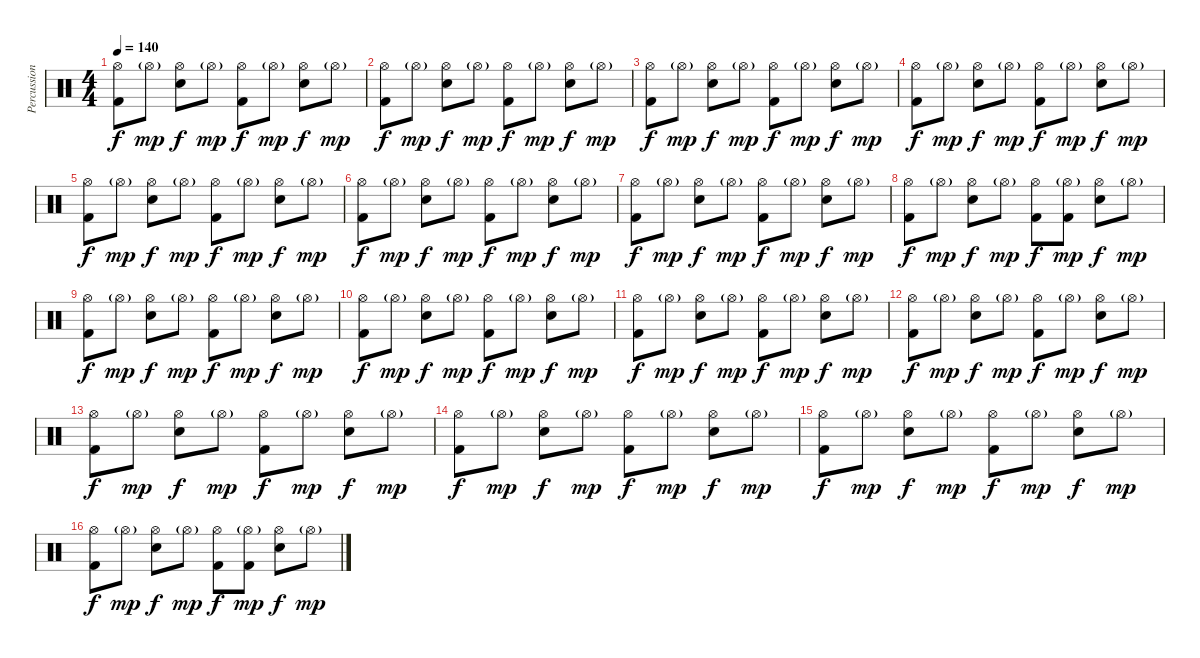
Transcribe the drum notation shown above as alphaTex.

\track ("Percussion" "Percussion") {instrument percussion}
\staff {score}
\articulation defaults
\ts (4 4)
\tempo 140
\clef neutral
\ks c
("Hi-Hat (open)" "Kick (hit) 2").8{dy f} "Hi-Hat (open)"{g}.8{dy mp} ("Hi-Hat (open)" "Snare (hit) 2").8{dy f} "Hi-Hat (open)"{g}.8{dy mp} ("Hi-Hat (open)" "Kick (hit) 2").8{dy f} "Hi-Hat (open)"{g}.8{dy mp} ("Hi-Hat (open)" "Snare (hit) 2").8{dy f} "Hi-Hat (open)"{g}.8{dy mp} |
("Hi-Hat (open)" "Kick (hit) 2").8{dy f} "Hi-Hat (open)"{g}.8{dy mp} ("Hi-Hat (open)" "Snare (hit) 2").8{dy f} "Hi-Hat (open)"{g}.8{dy mp} ("Hi-Hat (open)" "Kick (hit) 2").8{dy f} "Hi-Hat (open)"{g}.8{dy mp} ("Hi-Hat (open)" "Snare (hit) 2").8{dy f} "Hi-Hat (open)"{g}.8{dy mp} |
("Hi-Hat (open)" "Kick (hit) 2").8{dy f} "Hi-Hat (open)"{g}.8{dy mp} ("Hi-Hat (open)" "Snare (hit) 2").8{dy f} "Hi-Hat (open)"{g}.8{dy mp} ("Hi-Hat (open)" "Kick (hit) 2").8{dy f} "Hi-Hat (open)"{g}.8{dy mp} ("Hi-Hat (open)" "Snare (hit) 2").8{dy f} "Hi-Hat (open)"{g}.8{dy mp} |
("Hi-Hat (open)" "Kick (hit) 2").8{dy f} "Hi-Hat (open)"{g}.8{dy mp} ("Hi-Hat (open)" "Snare (hit) 2").8{dy f} "Hi-Hat (open)"{g}.8{dy mp} ("Hi-Hat (open)" "Kick (hit) 2").8{dy f} "Hi-Hat (open)"{g}.8{dy mp} ("Hi-Hat (open)" "Snare (hit) 2").8{dy f} "Hi-Hat (open)"{g}.8{dy mp} |
("Hi-Hat (open)" "Kick (hit) 2").8{dy f} "Hi-Hat (open)"{g}.8{dy mp} ("Hi-Hat (open)" "Snare (hit) 2").8{dy f} "Hi-Hat (open)"{g}.8{dy mp} ("Hi-Hat (open)" "Kick (hit) 2").8{dy f} "Hi-Hat (open)"{g}.8{dy mp} ("Hi-Hat (open)" "Snare (hit) 2").8{dy f} "Hi-Hat (open)"{g}.8{dy mp} |
("Hi-Hat (open)" "Kick (hit) 2").8{dy f} "Hi-Hat (open)"{g}.8{dy mp} ("Hi-Hat (open)" "Snare (hit) 2").8{dy f} "Hi-Hat (open)"{g}.8{dy mp} ("Hi-Hat (open)" "Kick (hit) 2").8{dy f} "Hi-Hat (open)"{g}.8{dy mp} ("Hi-Hat (open)" "Snare (hit) 2").8{dy f} "Hi-Hat (open)"{g}.8{dy mp} |
("Hi-Hat (open)" "Kick (hit) 2").8{dy f} "Hi-Hat (open)"{g}.8{dy mp} ("Hi-Hat (open)" "Snare (hit) 2").8{dy f} "Hi-Hat (open)"{g}.8{dy mp} ("Hi-Hat (open)" "Kick (hit) 2").8{dy f} "Hi-Hat (open)"{g}.8{dy mp} ("Hi-Hat (open)" "Snare (hit) 2").8{dy f} "Hi-Hat (open)"{g}.8{dy mp} |
("Hi-Hat (open)" "Kick (hit) 2").8{dy f} "Hi-Hat (open)"{g}.8{dy mp} ("Hi-Hat (open)" "Snare (hit) 2").8{dy f} "Hi-Hat (open)"{g}.8{dy mp} ("Hi-Hat (open)" "Kick (hit) 2").8{dy f} ("Hi-Hat (open)"{g} "Kick (hit) 2").8{dy mp} ("Hi-Hat (open)" "Snare (hit) 2").8{dy f} "Hi-Hat (open)"{g}.8{dy mp} |
("Hi-Hat (open)" "Kick (hit) 2").8{dy f} "Hi-Hat (open)"{g}.8{dy mp} ("Hi-Hat (open)" "Snare (hit) 2").8{dy f} "Hi-Hat (open)"{g}.8{dy mp} ("Hi-Hat (open)" "Kick (hit) 2").8{dy f} "Hi-Hat (open)"{g}.8{dy mp} ("Hi-Hat (open)" "Snare (hit) 2").8{dy f} "Hi-Hat (open)"{g}.8{dy mp} |
("Hi-Hat (open)" "Kick (hit) 2").8{dy f} "Hi-Hat (open)"{g}.8{dy mp} ("Hi-Hat (open)" "Snare (hit) 2").8{dy f} "Hi-Hat (open)"{g}.8{dy mp} ("Hi-Hat (open)" "Kick (hit) 2").8{dy f} "Hi-Hat (open)"{g}.8{dy mp} ("Hi-Hat (open)" "Snare (hit) 2").8{dy f} "Hi-Hat (open)"{g}.8{dy mp} |
("Hi-Hat (open)" "Kick (hit) 2").8{dy f} "Hi-Hat (open)"{g}.8{dy mp} ("Hi-Hat (open)" "Snare (hit) 2").8{dy f} "Hi-Hat (open)"{g}.8{dy mp} ("Hi-Hat (open)" "Kick (hit) 2").8{dy f} "Hi-Hat (open)"{g}.8{dy mp} ("Hi-Hat (open)" "Snare (hit) 2").8{dy f} "Hi-Hat (open)"{g}.8{dy mp} |
("Hi-Hat (open)" "Kick (hit) 2").8{dy f} "Hi-Hat (open)"{g}.8{dy mp} ("Hi-Hat (open)" "Snare (hit) 2").8{dy f} "Hi-Hat (open)"{g}.8{dy mp} ("Hi-Hat (open)" "Kick (hit) 2").8{dy f} "Hi-Hat (open)"{g}.8{dy mp} ("Hi-Hat (open)" "Snare (hit) 2").8{dy f} "Hi-Hat (open)"{g}.8{dy mp} |
("Hi-Hat (open)" "Kick (hit) 2").8{dy f} "Hi-Hat (open)"{g}.8{dy mp} ("Hi-Hat (open)" "Snare (hit) 2").8{dy f} "Hi-Hat (open)"{g}.8{dy mp} ("Hi-Hat (open)" "Kick (hit) 2").8{dy f} "Hi-Hat (open)"{g}.8{dy mp} ("Hi-Hat (open)" "Snare (hit) 2").8{dy f} "Hi-Hat (open)"{g}.8{dy mp} |
("Hi-Hat (open)" "Kick (hit) 2").8{dy f} "Hi-Hat (open)"{g}.8{dy mp} ("Hi-Hat (open)" "Snare (hit) 2").8{dy f} "Hi-Hat (open)"{g}.8{dy mp} ("Hi-Hat (open)" "Kick (hit) 2").8{dy f} "Hi-Hat (open)"{g}.8{dy mp} ("Hi-Hat (open)" "Snare (hit) 2").8{dy f} "Hi-Hat (open)"{g}.8{dy mp} |
("Hi-Hat (open)" "Kick (hit) 2").8{dy f} "Hi-Hat (open)"{g}.8{dy mp} ("Hi-Hat (open)" "Snare (hit) 2").8{dy f} "Hi-Hat (open)"{g}.8{dy mp} ("Hi-Hat (open)" "Kick (hit) 2").8{dy f} "Hi-Hat (open)"{g}.8{dy mp} ("Hi-Hat (open)" "Snare (hit) 2").8{dy f} "Hi-Hat (open)"{g}.8{dy mp} |
("Hi-Hat (open)" "Kick (hit) 2").8{dy f} "Hi-Hat (open)"{g}.8{dy mp} ("Hi-Hat (open)" "Snare (hit) 2").8{dy f} "Hi-Hat (open)"{g}.8{dy mp} ("Hi-Hat (open)" "Kick (hit) 2").8{dy f} ("Hi-Hat (open)"{g} "Kick (hit) 2").8{dy mp} ("Hi-Hat (open)" "Snare (hit) 2").8{dy f} "Hi-Hat (open)"{g}.8{dy mp}
